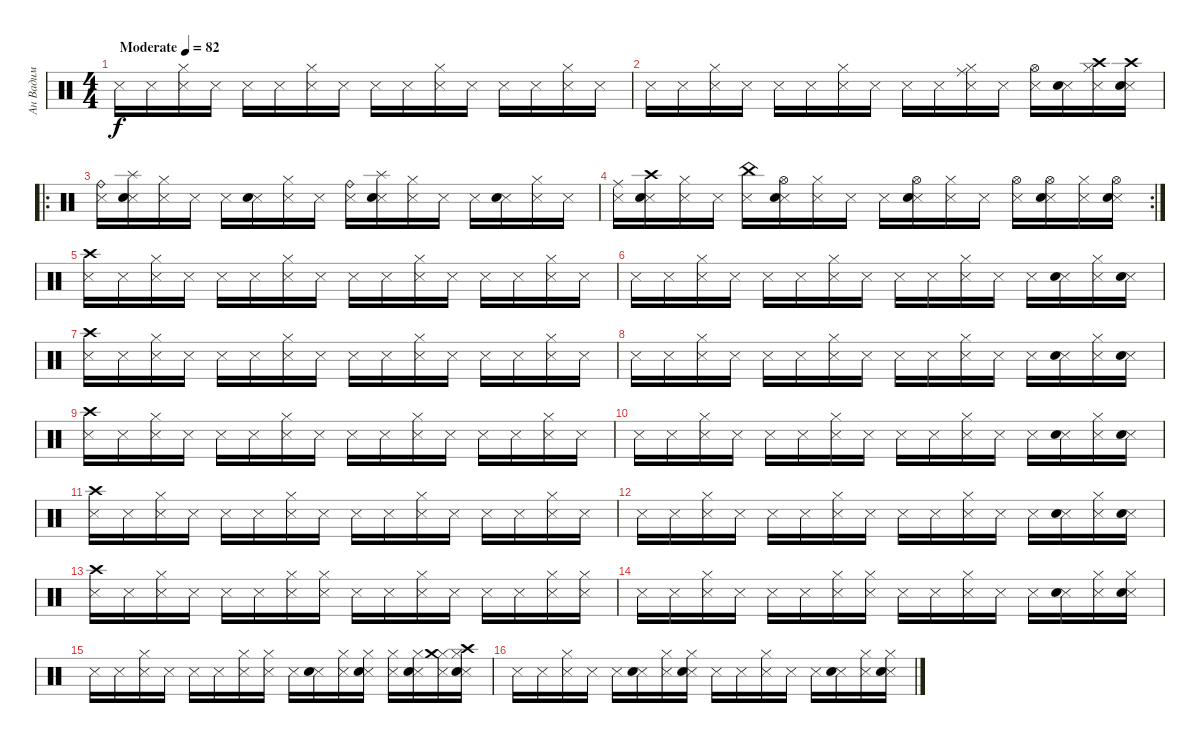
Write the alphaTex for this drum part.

\track ("Ан Вадим" "Ан Вадим") {instrument percussion}
\staff {score}
\articulation defaults
\ts (4 4)
\tempo (82 "Moderate")
\clef neutral
\ks c "Snare (side stick) 3".16{dy f} "Snare (side stick) 3".16
("Snare (side stick) 3" "Hi-Hat (closed)").16 "Snare (side stick) 3".16 "Snare (side stick) 3".16 "Snare (side stick) 3".16 ("Snare (side stick) 3" "Hi-Hat (closed)").16 "Snare (side stick) 3".16 "Snare (side stick) 3".16 "Snare (side stick) 3".16 ("Snare (side stick) 3" "Hi-Hat (closed)").16 "Snare (side stick) 3".16 "Snare (side stick) 3".16 "Snare (side stick) 3".16 ("Snare (side stick) 3" "Hi-Hat (closed)").16 "Snare (side stick) 3".16 |
"Snare (side stick) 3".16 "Snare (side stick) 3".16 ("Snare (side stick) 3" "Hi-Hat (closed)").16 "Snare (side stick) 3".16 "Snare (side stick) 3".16 "Snare (side stick) 3".16 ("Snare (side stick) 3" "Hi-Hat (closed)").16 "Snare (side stick) 3".16 "Snare (side stick) 3".16 "Snare (side stick) 3".16 ("Snare (side stick) 3" "Hi-Hat (closed)" "Ride (middle)").16 "Snare (side stick) 3".16 ("Snare (side stick) 3" "Hi-Hat (open)").16 ("Snare (side stick) 3" "Snare (hit) 2").16 ("Snare (side stick) 3" "Hi-Hat (closed)" "Crash high (hit)").16 ("Snare (side stick) 3" "Snare (hit) 2" "Crash high (hit)").16 |
\ro
("Snare (side stick) 3" "Ride (bell)").16 ("Snare (side stick) 3" "Snare (hit) 2" "Splash (hit)").16 ("Snare (side stick) 3" "Hi-Hat (closed)").16 "Snare (side stick) 3".16 "Snare (side stick) 3".16 ("Snare (side stick) 3" "Snare (hit) 2").16 ("Snare (side stick) 3" "Hi-Hat (closed)").16 "Snare (side stick) 3".16 ("Snare (side stick) 3" "Ride (bell)").16 ("Snare (side stick) 3" "Snare (hit) 2" "Splash (hit)").16 ("Snare (side stick) 3" "Hi-Hat (closed)").16 "Snare (side stick) 3".16 "Snare (side stick) 3".16 ("Snare (side stick) 3" "Snare (hit) 2").16 ("Snare (side stick) 3" "Hi-Hat (closed)").16 "Snare (side stick) 3".16 |
\rc 2
("Snare (side stick) 3" "Ride (middle)").16 ("Snare (side stick) 3" "Snare (hit) 2" "Crash high (hit)").16 ("Snare (side stick) 3" "Hi-Hat (closed)").16 "Snare (side stick) 3".16 ("Snare (side stick) 3" "China (hit)").16 ("Snare (side stick) 3" "Snare (hit) 2" "Hi-Hat (open)").16 ("Snare (side stick) 3" "Hi-Hat (closed)").16 "Snare (side stick) 3".16 "Snare (side stick) 3".16 ("Snare (side stick) 3" "Snare (hit) 2" "Hi-Hat (open)").16 ("Snare (side stick) 3" "Hi-Hat (closed)").16 "Snare (side stick) 3".16 ("Snare (side stick) 3" "Hi-Hat (open)").16 ("Snare (side stick) 3" "Snare (hit) 2" "Hi-Hat (open)").16 ("Snare (side stick) 3" "Hi-Hat (closed)").16 ("Snare (side stick) 3" "Snare (hit) 2" "Hi-Hat (open)").16 |
("Snare (side stick) 3" "Crash high (hit)").16 "Snare (side stick) 3".16 ("Snare (side stick) 3" "Hi-Hat (closed)").16 "Snare (side stick) 3".16 "Snare (side stick) 3".16 "Snare (side stick) 3".16 ("Snare (side stick) 3" "Hi-Hat (closed)").16 "Snare (side stick) 3".16 "Snare (side stick) 3".16 "Snare (side stick) 3".16 ("Snare (side stick) 3" "Hi-Hat (closed)").16 "Snare (side stick) 3".16 "Snare (side stick) 3".16 "Snare (side stick) 3".16 ("Snare (side stick) 3" "Hi-Hat (closed)").16 "Snare (side stick) 3".16 |
"Snare (side stick) 3".16 "Snare (side stick) 3".16 ("Snare (side stick) 3" "Hi-Hat (closed)").16 "Snare (side stick) 3".16 "Snare (side stick) 3".16 "Snare (side stick) 3".16 ("Snare (side stick) 3" "Hi-Hat (closed)").16 "Snare (side stick) 3".16 "Snare (side stick) 3".16 "Snare (side stick) 3".16 ("Snare (side stick) 3" "Hi-Hat (closed)").16 "Snare (side stick) 3".16 "Snare (side stick) 3".16 ("Snare (side stick) 3" "Snare (hit) 2").16 ("Snare (side stick) 3" "Hi-Hat (closed)").16 ("Snare (side stick) 3" "Snare (hit) 2").16 |
("Snare (side stick) 3" "Crash high (hit)").16 "Snare (side stick) 3".16 ("Snare (side stick) 3" "Hi-Hat (closed)").16 "Snare (side stick) 3".16 "Snare (side stick) 3".16 "Snare (side stick) 3".16 ("Snare (side stick) 3" "Hi-Hat (closed)").16 "Snare (side stick) 3".16 "Snare (side stick) 3".16 "Snare (side stick) 3".16 ("Snare (side stick) 3" "Hi-Hat (closed)").16 "Snare (side stick) 3".16 "Snare (side stick) 3".16 "Snare (side stick) 3".16 ("Snare (side stick) 3" "Hi-Hat (closed)").16 "Snare (side stick) 3".16 |
"Snare (side stick) 3".16 "Snare (side stick) 3".16 ("Snare (side stick) 3" "Hi-Hat (closed)").16 "Snare (side stick) 3".16 "Snare (side stick) 3".16 "Snare (side stick) 3".16 ("Snare (side stick) 3" "Hi-Hat (closed)").16 "Snare (side stick) 3".16 "Snare (side stick) 3".16 "Snare (side stick) 3".16 ("Snare (side stick) 3" "Hi-Hat (closed)").16 "Snare (side stick) 3".16 "Snare (side stick) 3".16 ("Snare (side stick) 3" "Snare (hit) 2").16 ("Snare (side stick) 3" "Hi-Hat (closed)").16 ("Snare (side stick) 3" "Snare (hit) 2").16 |
("Snare (side stick) 3" "Crash high (hit)").16 "Snare (side stick) 3".16 ("Snare (side stick) 3" "Hi-Hat (closed)").16 "Snare (side stick) 3".16 "Snare (side stick) 3".16 "Snare (side stick) 3".16 ("Snare (side stick) 3" "Hi-Hat (closed)").16 "Snare (side stick) 3".16 "Snare (side stick) 3".16 "Snare (side stick) 3".16 ("Snare (side stick) 3" "Hi-Hat (closed)").16 "Snare (side stick) 3".16 "Snare (side stick) 3".16 "Snare (side stick) 3".16 ("Snare (side stick) 3" "Hi-Hat (closed)").16 "Snare (side stick) 3".16 |
"Snare (side stick) 3".16 "Snare (side stick) 3".16 ("Snare (side stick) 3" "Hi-Hat (closed)").16 "Snare (side stick) 3".16 "Snare (side stick) 3".16 "Snare (side stick) 3".16 ("Snare (side stick) 3" "Hi-Hat (closed)").16 "Snare (side stick) 3".16 "Snare (side stick) 3".16 "Snare (side stick) 3".16 ("Snare (side stick) 3" "Hi-Hat (closed)").16 "Snare (side stick) 3".16 "Snare (side stick) 3".16 ("Snare (side stick) 3" "Snare (hit) 2").16 ("Snare (side stick) 3" "Hi-Hat (closed)").16 ("Snare (side stick) 3" "Snare (hit) 2").16 |
("Snare (side stick) 3" "Crash high (hit)").16 "Snare (side stick) 3".16 ("Snare (side stick) 3" "Hi-Hat (closed)").16 "Snare (side stick) 3".16 "Snare (side stick) 3".16 "Snare (side stick) 3".16 ("Snare (side stick) 3" "Hi-Hat (closed)").16 "Snare (side stick) 3".16 "Snare (side stick) 3".16 "Snare (side stick) 3".16 ("Snare (side stick) 3" "Hi-Hat (closed)").16 "Snare (side stick) 3".16 "Snare (side stick) 3".16 "Snare (side stick) 3".16 ("Snare (side stick) 3" "Hi-Hat (closed)").16 "Snare (side stick) 3".16 |
"Snare (side stick) 3".16 "Snare (side stick) 3".16 ("Snare (side stick) 3" "Hi-Hat (closed)").16 "Snare (side stick) 3".16 "Snare (side stick) 3".16 "Snare (side stick) 3".16 ("Snare (side stick) 3" "Hi-Hat (closed)").16 "Snare (side stick) 3".16 "Snare (side stick) 3".16 "Snare (side stick) 3".16 ("Snare (side stick) 3" "Hi-Hat (closed)").16 "Snare (side stick) 3".16 "Snare (side stick) 3".16 ("Snare (side stick) 3" "Snare (hit) 2").16 ("Snare (side stick) 3" "Hi-Hat (closed)").16 ("Snare (side stick) 3" "Snare (hit) 2").16 |
("Snare (side stick) 3" "Crash high (hit)").16 "Snare (side stick) 3".16 ("Snare (side stick) 3" "Hi-Hat (closed)").16 "Snare (side stick) 3".16 "Snare (side stick) 3".16 "Snare (side stick) 3".16 ("Snare (side stick) 3" "Hi-Hat (closed)").16 ("Snare (side stick) 3" "Hi-Hat (closed)").16 "Snare (side stick) 3".16 "Snare (side stick) 3".16 ("Snare (side stick) 3" "Hi-Hat (closed)").16 "Snare (side stick) 3".16 "Snare (side stick) 3".16 "Snare (side stick) 3".16 ("Snare (side stick) 3" "Hi-Hat (closed)").16 ("Snare (side stick) 3" "Hi-Hat (closed)").16 |
"Snare (side stick) 3".16 "Snare (side stick) 3".16 ("Snare (side stick) 3" "Hi-Hat (closed)").16 "Snare (side stick) 3".16 "Snare (side stick) 3".16 "Snare (side stick) 3".16 ("Snare (side stick) 3" "Hi-Hat (closed)").16 ("Snare (side stick) 3" "Hi-Hat (closed)").16 "Snare (side stick) 3".16 "Snare (side stick) 3".16 ("Snare (side stick) 3" "Hi-Hat (closed)").16 "Snare (side stick) 3".16 "Snare (side stick) 3".16 ("Snare (side stick) 3" "Snare (hit) 2").16 ("Snare (side stick) 3" "Hi-Hat (closed)").16 ("Snare (side stick) 3" "Hi-Hat (closed)" "Snare (hit) 2").16 |
"Snare (side stick) 3".16 "Snare (side stick) 3".16 ("Snare (side stick) 3" "Hi-Hat (closed)").16 "Snare (side stick) 3".16 "Snare (side stick) 3".16 "Snare (side stick) 3".16 ("Snare (side stick) 3" "Hi-Hat (closed)").16 ("Snare (side stick) 3" "Hi-Hat (closed)").16 "Snare (side stick) 3".16 ("Snare (side stick) 3" "Snare (hit) 2").16 ("Snare (side stick) 3" "Hi-Hat (closed)").16 ("Snare (side stick) 3" "Hi-Hat (closed)" "Snare (hit) 2").16 ("Snare (side stick) 3" "Hi-Hat (closed)").16 ("Snare (side stick) 3" "Hi-Hat (closed)" "Snare (hit) 2").16 ("Snare (side stick) 3" "Hi-Hat (closed)" "Crash medium (hit)").16 ("Snare (side stick) 3" "Hi-Hat (closed)" "Snare (hit) 2" "Crash high (hit)").16 |
"Snare (side stick) 3".16 "Snare (side stick) 3".16 ("Snare (side stick) 3" "Hi-Hat (closed)").16 "Snare (side stick) 3".16 "Snare (side stick) 3".16 ("Snare (side stick) 3" "Snare (hit) 2").16 ("Snare (side stick) 3" "Hi-Hat (closed)").16 ("Snare (side stick) 3" "Hi-Hat (closed)" "Snare (hit) 2").16 "Snare (side stick) 3".16 "Snare (side stick) 3".16 ("Snare (side stick) 3" "Hi-Hat (closed)").16 "Snare (side stick) 3".16 "Snare (side stick) 3".16 ("Snare (side stick) 3" "Snare (hit) 2").16 ("Snare (side stick) 3" "Hi-Hat (closed)").16 ("Snare (side stick) 3" "Hi-Hat (closed)" "Snare (hit) 2").16
